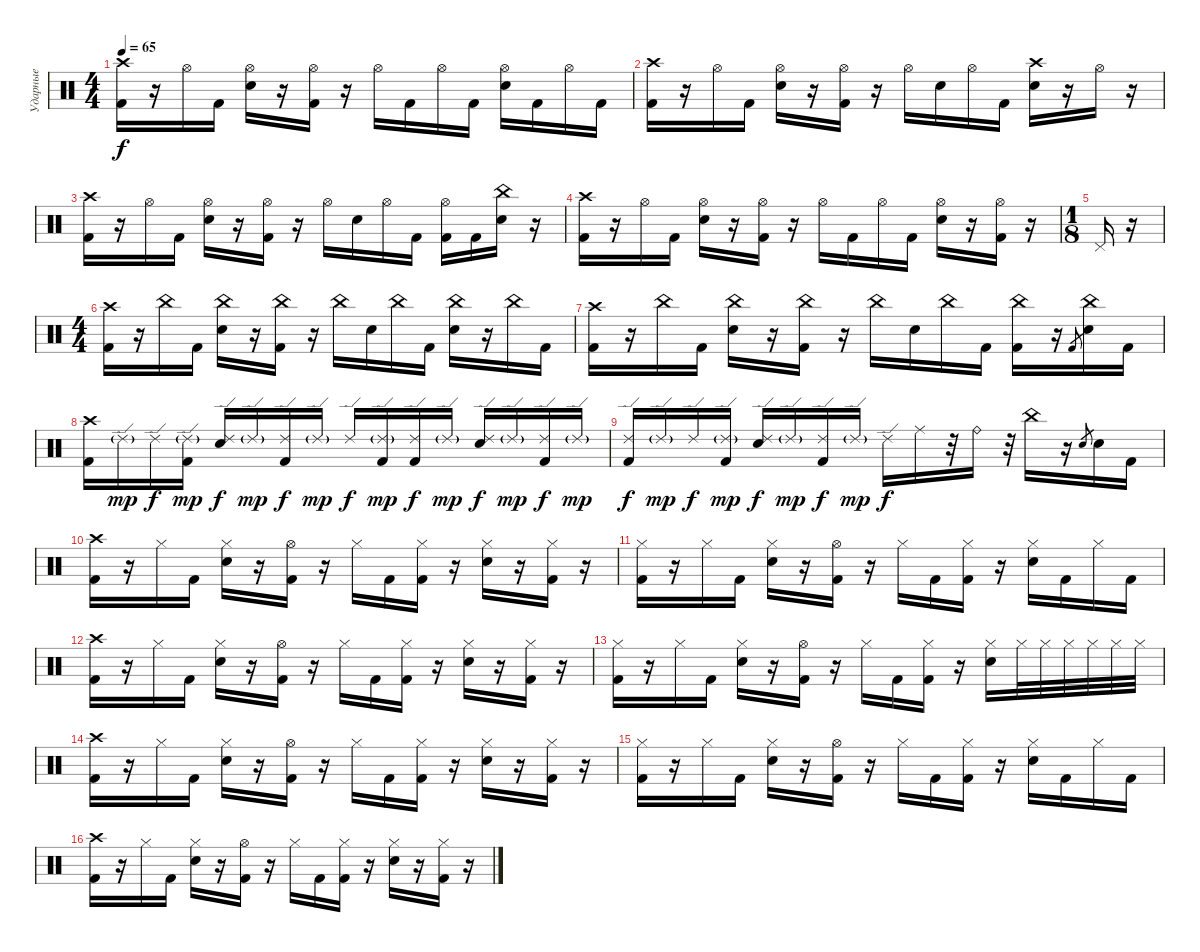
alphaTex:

\track ("Ударные" "Ударные") {instrument percussion}
\staff {score}
\articulation defaults
\ts (4 4)
\tempo 65
\clef neutral
\ks c
("Crash high (hit)" "Kick (hit) 2").16{dy f} r.16 "Hi-Hat (open)".16 "Kick (hit) 2".16 ("Hi-Hat (open)" "Electric Snare (hit)").16 r.16 ("Hi-Hat (open)" "Kick (hit) 2").16 r.16 "Hi-Hat (open)".16 "Kick (hit) 2".16 "Hi-Hat (open)".16 "Kick (hit) 2".16 ("Hi-Hat (open)" "Electric Snare (hit)").16 "Kick (hit) 2".16 "Hi-Hat (open)".16 "Kick (hit) 2".16 |
("Crash high (hit)" "Kick (hit) 2").16 r.16 "Hi-Hat (open)".16 "Kick (hit) 2".16 ("Hi-Hat (open)" "Electric Snare (hit)").16 r.16 ("Hi-Hat (open)" "Kick (hit) 2").16 r.16 "Hi-Hat (open)".16 "Electric Snare (hit)".16 "Hi-Hat (open)".16 "Kick (hit) 2".16 ("Crash high (hit)" "Electric Snare (hit)").16 r.16 "Hi-Hat (open)".16 r.16 |
("Crash high (hit)" "Kick (hit) 2").16 r.16 "Hi-Hat (open)".16 "Kick (hit) 2".16 ("Hi-Hat (open)" "Electric Snare (hit)").16 r.16 ("Hi-Hat (open)" "Kick (hit) 2").16 r.16 "Hi-Hat (open)".16 "Electric Snare (hit)".16 "Hi-Hat (open)".16 "Kick (hit) 2".16 ("Hi-Hat (open)" "Kick (hit) 2").16 "Kick (hit) 2".16 ("China (hit)" "Electric Snare (hit)").16 r.16 |
("Crash high (hit)" "Kick (hit) 2").16 r.16 "Hi-Hat (open)".16 "Kick (hit) 2".16 ("Hi-Hat (open)" "Electric Snare (hit)").16 r.16 ("Hi-Hat (open)" "Kick (hit) 2").16 r.16 "Hi-Hat (open)".16 "Kick (hit) 2".16 "Hi-Hat (open)".16 "Kick (hit) 2".16 ("Hi-Hat (open)" "Electric Snare (hit)").16 r.16 ("Hi-Hat (open)" "Kick (hit) 2").16 r.16 |
\ts (1 8)
"Pedal Hi-Hat (hit)".16 r.16 |
\ts (4 4)
("Crash high (hit)" "Kick (hit) 2").16 r.16 "China (hit)".16 "Kick (hit) 2".16 ("China (hit)" "Electric Snare (hit)").16 r.16 ("China (hit)" "Kick (hit) 2").16 r.16 "China (hit)".16 "Electric Snare (hit)".16 "China (hit)".16 "Kick (hit) 2".16 ("China (hit)" "Electric Snare (hit)").16 r.16 "China (hit)".16 "Kick (hit) 2".16 |
("Crash high (hit)" "Kick (hit) 2").16 r.16 "China (hit)".16 "Kick (hit) 2".16 ("China (hit)" "Electric Snare (hit)").16 r.16 ("China (hit)" "Kick (hit) 2").16 r.16 "China (hit)".16 "Electric Snare (hit)".16 "China (hit)".16 "Kick (hit) 2".16 ("China (hit)" "Kick (hit) 2").16 r.16 "Kick (hit) 2".8{gr} ("China (hit)" "Electric Snare (hit)").16 "Kick (hit) 2".16 |
("Crash high (hit)" "Kick (hit) 2").16 "Ride (edge) 2"{g}.16{dy mp} "Ride (edge) 2".16{dy f} ("Ride (edge) 2"{g} "Kick (hit) 2").16{dy mp} ("Ride (edge) 2" "Electric Snare (hit)").16{dy f} "Ride (edge) 2"{g}.16{dy mp} ("Ride (edge) 2" "Kick (hit) 2").16{dy f} "Ride (edge) 2"{g}.16{dy mp} "Ride (edge) 2".16{dy f} ("Ride (edge) 2"{g} "Kick (hit) 2").16{dy mp} ("Ride (edge) 2" "Kick (hit) 2").16{dy f} "Ride (edge) 2"{g}.16{dy mp} ("Ride (edge) 2" "Electric Snare (hit)").16{dy f} "Ride (edge) 2"{g}.16{dy mp} ("Ride (edge) 2" "Kick (hit) 2").16{dy f} "Ride (edge) 2"{g}.16{dy mp} |
("Ride (edge) 2" "Kick (hit) 2").16{dy f} "Ride (edge) 2"{g}.16{dy mp} "Ride (edge) 2".16{dy f} ("Ride (edge) 2"{g} "Kick (hit) 2").16{dy mp} ("Ride (edge) 2" "Electric Snare (hit)").16{dy f} "Ride (edge) 2"{g}.16{dy mp} ("Ride (edge) 2" "Kick (hit) 2").16{dy f} "Ride (edge) 2"{g}.16{dy mp} "Ride (edge) 2".16{dy f} "Ride (middle)".16 r.32 "Ride (bell)".16 r.32 "China (hit)".16 r.16 "Electric Snare (hit)".8{gr} "Electric Snare (hit)".16 "Kick (hit) 2".16 |
("Crash high (hit)" "Kick (hit) 2").16 r.16 "Hi-Hat (closed)".16 "Kick (hit) 2".16 ("Hi-Hat (closed)" "Electric Snare (hit)").16 r.16 ("Hi-Hat (open)" "Kick (hit) 2").16 r.16 "Hi-Hat (closed)".16 "Kick (hit) 2".16 ("Hi-Hat (closed)" "Kick (hit) 2").16 r.16 ("Hi-Hat (closed)" "Electric Snare (hit)").16 r.16 ("Hi-Hat (closed)" "Kick (hit) 2").16 r.16 |
("Hi-Hat (closed)" "Kick (hit) 2").16 r.16 "Hi-Hat (closed)".16 "Kick (hit) 2".16 ("Hi-Hat (closed)" "Electric Snare (hit)").16 r.16 ("Hi-Hat (open)" "Kick (hit) 2").16 r.16 "Hi-Hat (closed)".16 "Kick (hit) 2".16 ("Hi-Hat (closed)" "Kick (hit) 2").16 r.16 ("Hi-Hat (closed)" "Electric Snare (hit)").16 "Kick (hit) 2".16 "Hi-Hat (closed)".16 "Kick (hit) 2".16 |
("Crash high (hit)" "Kick (hit) 2").16 r.16 "Hi-Hat (closed)".16 "Kick (hit) 2".16 ("Hi-Hat (closed)" "Electric Snare (hit)").16 r.16 ("Hi-Hat (open)" "Kick (hit) 2").16 r.16 "Hi-Hat (closed)".16 "Kick (hit) 2".16 ("Hi-Hat (closed)" "Kick (hit) 2").16 r.16 ("Hi-Hat (closed)" "Electric Snare (hit)").16 r.16 ("Hi-Hat (closed)" "Kick (hit) 2").16 r.16 |
("Hi-Hat (closed)" "Kick (hit) 2").16 r.16 "Hi-Hat (closed)".16 "Kick (hit) 2".16 ("Hi-Hat (closed)" "Electric Snare (hit)").16 r.16 ("Hi-Hat (open)" "Kick (hit) 2").16 r.16 "Hi-Hat (closed)".16 "Kick (hit) 2".16 ("Hi-Hat (closed)" "Kick (hit) 2").16 r.16 ("Hi-Hat (closed)" "Electric Snare (hit)").16 "Hi-Hat (closed)".32 "Hi-Hat (closed)".32 "Hi-Hat (closed)".32 "Hi-Hat (closed)".32 "Hi-Hat (closed)".32 "Hi-Hat (closed)".32 |
("Crash high (hit)" "Kick (hit) 2").16 r.16 "Hi-Hat (closed)".16 "Kick (hit) 2".16 ("Hi-Hat (closed)" "Electric Snare (hit)").16 r.16 ("Hi-Hat (open)" "Kick (hit) 2").16 r.16 "Hi-Hat (closed)".16 "Kick (hit) 2".16 ("Hi-Hat (closed)" "Kick (hit) 2").16 r.16 ("Hi-Hat (closed)" "Electric Snare (hit)").16 r.16 ("Hi-Hat (closed)" "Kick (hit) 2").16 r.16 |
("Hi-Hat (closed)" "Kick (hit) 2").16 r.16 "Hi-Hat (closed)".16 "Kick (hit) 2".16 ("Hi-Hat (closed)" "Electric Snare (hit)").16 r.16 ("Hi-Hat (open)" "Kick (hit) 2").16 r.16 "Hi-Hat (closed)".16 "Kick (hit) 2".16 ("Hi-Hat (closed)" "Kick (hit) 2").16 r.16 ("Hi-Hat (closed)" "Electric Snare (hit)").16 "Kick (hit) 2".16 "Hi-Hat (closed)".16 "Kick (hit) 2".16 |
("Crash high (hit)" "Kick (hit) 2").16 r.16 "Hi-Hat (closed)".16 "Kick (hit) 2".16 ("Hi-Hat (closed)" "Electric Snare (hit)").16 r.16 ("Hi-Hat (open)" "Kick (hit) 2").16 r.16 "Hi-Hat (closed)".16 "Kick (hit) 2".16 ("Hi-Hat (closed)" "Kick (hit) 2").16 r.16 ("Hi-Hat (closed)" "Electric Snare (hit)").16 r.16 ("Hi-Hat (closed)" "Kick (hit) 2").16 r.16
